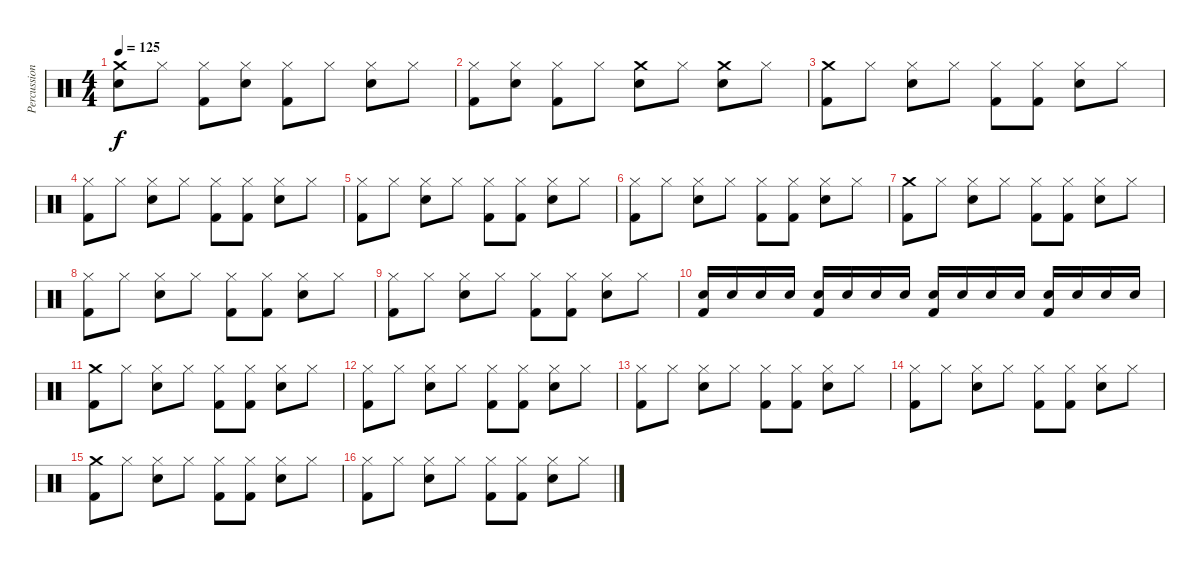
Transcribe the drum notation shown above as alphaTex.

\track ("Percussion" "Percussion") {instrument percussion}
\staff {score}
\articulation defaults
\ts (4 4)
\tempo 125
\clef neutral
\ks c
("Crash medium (hit)" "Snare (hit) 2").8{dy f} "Hi-Hat (closed)".8 ("Hi-Hat (closed)" "Kick (hit) 2").8 ("Hi-Hat (closed)" "Snare (hit) 2").8 ("Hi-Hat (closed)" "Kick (hit) 2").8 "Hi-Hat (closed)".8 ("Hi-Hat (closed)" "Snare (hit) 2").8 "Hi-Hat (closed)".8 |
("Hi-Hat (closed)" "Kick (hit) 2").8 ("Hi-Hat (closed)" "Snare (hit) 2").8 ("Hi-Hat (closed)" "Kick (hit) 2").8 "Hi-Hat (closed)".8 ("Crash medium (hit)" "Snare (hit) 2").8 "Hi-Hat (closed)".8 ("Crash medium (hit)" "Snare (hit) 2").8 "Hi-Hat (closed)".8 |
("Crash medium (hit)" "Kick (hit) 2").8 "Hi-Hat (closed)".8 ("Hi-Hat (closed)" "Snare (hit) 2").8 "Hi-Hat (closed)".8 ("Hi-Hat (closed)" "Kick (hit) 2").8 ("Hi-Hat (closed)" "Kick (hit) 2").8 ("Hi-Hat (closed)" "Snare (hit) 2").8 "Hi-Hat (closed)".8 |
("Hi-Hat (closed)" "Kick (hit) 2").8 "Hi-Hat (closed)".8 ("Hi-Hat (closed)" "Snare (hit) 2").8 "Hi-Hat (closed)".8 ("Hi-Hat (closed)" "Kick (hit) 2").8 ("Hi-Hat (closed)" "Kick (hit) 2").8 ("Hi-Hat (closed)" "Snare (hit) 2").8 "Hi-Hat (closed)".8 |
("Hi-Hat (closed)" "Kick (hit) 2").8 "Hi-Hat (closed)".8 ("Hi-Hat (closed)" "Snare (hit) 2").8 "Hi-Hat (closed)".8 ("Hi-Hat (closed)" "Kick (hit) 2").8 ("Hi-Hat (closed)" "Kick (hit) 2").8 ("Hi-Hat (closed)" "Snare (hit) 2").8 "Hi-Hat (closed)".8 |
("Hi-Hat (closed)" "Kick (hit) 2").8 "Hi-Hat (closed)".8 ("Hi-Hat (closed)" "Snare (hit) 2").8 "Hi-Hat (closed)".8 ("Hi-Hat (closed)" "Kick (hit) 2").8 ("Hi-Hat (closed)" "Kick (hit) 2").8 ("Hi-Hat (closed)" "Snare (hit) 2").8 "Hi-Hat (closed)".8 |
("Crash medium (hit)" "Kick (hit) 2").8 "Hi-Hat (closed)".8 ("Hi-Hat (closed)" "Snare (hit) 2").8 "Hi-Hat (closed)".8 ("Hi-Hat (closed)" "Kick (hit) 2").8 ("Hi-Hat (closed)" "Kick (hit) 2").8 ("Hi-Hat (closed)" "Snare (hit) 2").8 "Hi-Hat (closed)".8 |
("Hi-Hat (closed)" "Kick (hit) 2").8 "Hi-Hat (closed)".8 ("Hi-Hat (closed)" "Snare (hit) 2").8 "Hi-Hat (closed)".8 ("Hi-Hat (closed)" "Kick (hit) 2").8 ("Hi-Hat (closed)" "Kick (hit) 2").8 ("Hi-Hat (closed)" "Snare (hit) 2").8 "Hi-Hat (closed)".8 |
("Hi-Hat (closed)" "Kick (hit) 2").8 "Hi-Hat (closed)".8 ("Hi-Hat (closed)" "Snare (hit) 2").8 "Hi-Hat (closed)".8 ("Hi-Hat (closed)" "Kick (hit) 2").8 ("Hi-Hat (closed)" "Kick (hit) 2").8 ("Hi-Hat (closed)" "Snare (hit) 2").8 "Hi-Hat (closed)".8 |
("Snare (hit) 2" "Kick (hit) 2").16 "Snare (hit) 2".16 "Snare (hit) 2".16 "Snare (hit) 2".16 ("Snare (hit) 2" "Kick (hit) 2").16 "Snare (hit) 2".16 "Snare (hit) 2".16 "Snare (hit) 2".16 ("Snare (hit) 2" "Kick (hit) 2").16 "Snare (hit) 2".16 "Snare (hit) 2".16 "Snare (hit) 2".16 ("Snare (hit) 2" "Kick (hit) 2").16 "Snare (hit) 2".16 "Snare (hit) 2".16 "Snare (hit) 2".16 |
("Crash medium (hit)" "Kick (hit) 2").8 "Hi-Hat (closed)".8 ("Hi-Hat (closed)" "Snare (hit) 2").8 "Hi-Hat (closed)".8 ("Hi-Hat (closed)" "Kick (hit) 2").8 ("Hi-Hat (closed)" "Kick (hit) 2").8 ("Hi-Hat (closed)" "Snare (hit) 2").8 "Hi-Hat (closed)".8 |
("Hi-Hat (closed)" "Kick (hit) 2").8 "Hi-Hat (closed)".8 ("Hi-Hat (closed)" "Snare (hit) 2").8 "Hi-Hat (closed)".8 ("Hi-Hat (closed)" "Kick (hit) 2").8 ("Hi-Hat (closed)" "Kick (hit) 2").8 ("Hi-Hat (closed)" "Snare (hit) 2").8 "Hi-Hat (closed)".8 |
("Hi-Hat (closed)" "Kick (hit) 2").8 "Hi-Hat (closed)".8 ("Hi-Hat (closed)" "Snare (hit) 2").8 "Hi-Hat (closed)".8 ("Hi-Hat (closed)" "Kick (hit) 2").8 ("Hi-Hat (closed)" "Kick (hit) 2").8 ("Hi-Hat (closed)" "Snare (hit) 2").8 "Hi-Hat (closed)".8 |
("Hi-Hat (closed)" "Kick (hit) 2").8 "Hi-Hat (closed)".8 ("Hi-Hat (closed)" "Snare (hit) 2").8 "Hi-Hat (closed)".8 ("Hi-Hat (closed)" "Kick (hit) 2").8 ("Hi-Hat (closed)" "Kick (hit) 2").8 ("Hi-Hat (closed)" "Snare (hit) 2").8 "Hi-Hat (closed)".8 |
("Crash medium (hit)" "Kick (hit) 2").8 "Hi-Hat (closed)".8 ("Hi-Hat (closed)" "Snare (hit) 2").8 "Hi-Hat (closed)".8 ("Hi-Hat (closed)" "Kick (hit) 2").8 ("Hi-Hat (closed)" "Kick (hit) 2").8 ("Hi-Hat (closed)" "Snare (hit) 2").8 "Hi-Hat (closed)".8 |
("Hi-Hat (closed)" "Kick (hit) 2").8 "Hi-Hat (closed)".8 ("Hi-Hat (closed)" "Snare (hit) 2").8 "Hi-Hat (closed)".8 ("Hi-Hat (closed)" "Kick (hit) 2").8 ("Hi-Hat (closed)" "Kick (hit) 2").8 ("Hi-Hat (closed)" "Snare (hit) 2").8 "Hi-Hat (closed)".8
